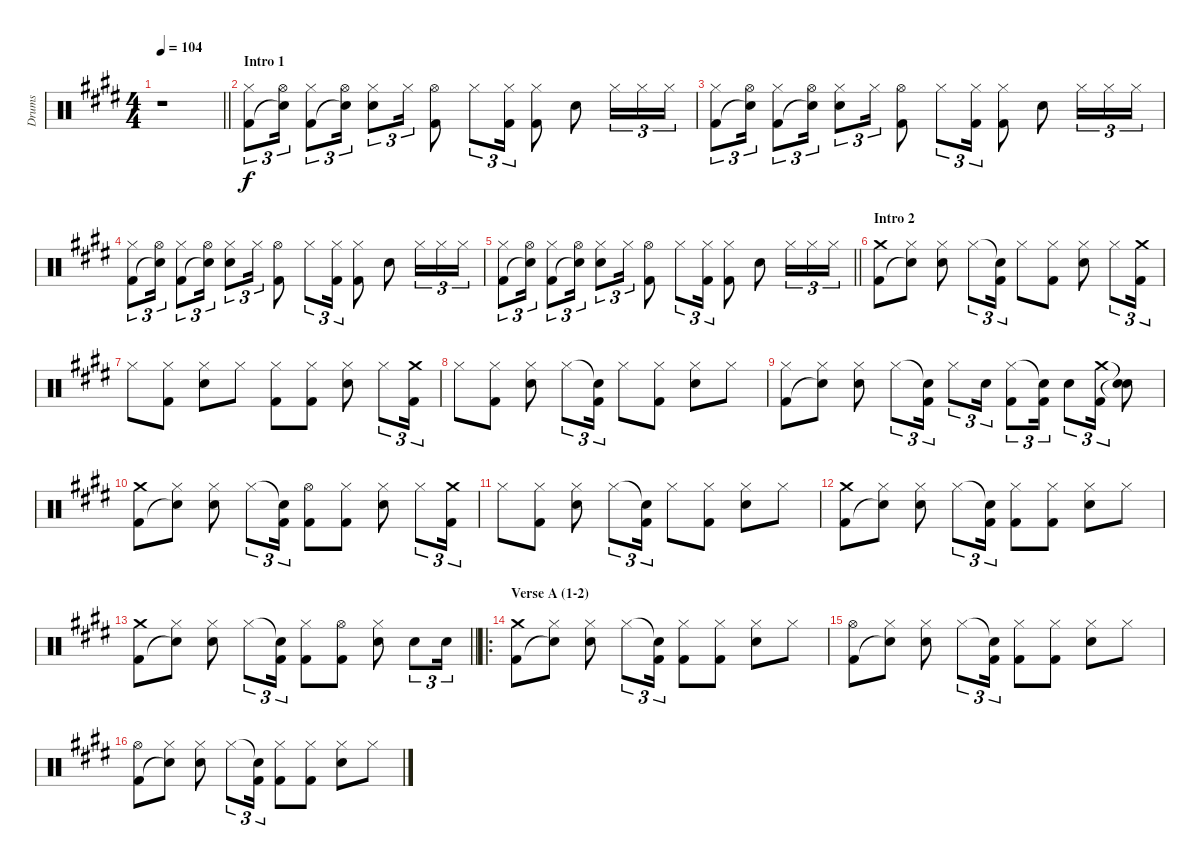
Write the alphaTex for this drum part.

\track ("Drums" "Drums") {instrument percussion}
\staff {score}
\articulation defaults
\ts (4 4)
\tempo 104
\clef neutral
\barLineRight lightlight
\ks c#minor
r.1{dy f} |
\section ("" "Intro 1")
("Hi-Hat (closed)" "Kick (hit) 2").8{tu (3 2)} ("Hi-Hat (open)" "Snare (hit)"{t}).16{tu (3 2)} ("Hi-Hat (closed)" "Kick (hit) 2").8{tu (3 2)} ("Hi-Hat (open)" "Snare (hit)"{t}).16{tu (3 2)} ("Hi-Hat (closed)" "Electric Snare (hit)").8{tu (3 2)} "Hi-Hat (closed)".16{tu (3 2)} ("Hi-Hat (open)" "Kick (hit) 2").8 "Hi-Hat (closed)".8{tu (3 2)} ("Hi-Hat (closed)" "Kick (hit) 2").16{tu (3 2)} ("Hi-Hat (closed)" "Kick (hit) 2").8 "Electric Snare (hit)".8 "Hi-Hat (closed)".16{tu (3 2)} "Hi-Hat (closed)".16{tu (3 2)} "Hi-Hat (closed)".16{tu (3 2)} |
("Hi-Hat (closed)" "Kick (hit) 2").8{tu (3 2)} ("Hi-Hat (open)" "Snare (hit)"{t}).16{tu (3 2)} ("Hi-Hat (closed)" "Kick (hit) 2").8{tu (3 2)} ("Hi-Hat (open)" "Snare (hit)"{t}).16{tu (3 2)} ("Hi-Hat (closed)" "Electric Snare (hit)").8{tu (3 2)} "Hi-Hat (closed)".16{tu (3 2)} ("Hi-Hat (open)" "Kick (hit) 2").8 "Hi-Hat (closed)".8{tu (3 2)} ("Hi-Hat (closed)" "Kick (hit) 2").16{tu (3 2)} ("Hi-Hat (closed)" "Kick (hit) 2").8 "Electric Snare (hit)".8 "Hi-Hat (closed)".16{tu (3 2)} "Hi-Hat (closed)".16{tu (3 2)} "Hi-Hat (closed)".16{tu (3 2)} |
("Hi-Hat (closed)" "Kick (hit) 2").8{tu (3 2)} ("Hi-Hat (open)" "Snare (hit)"{t}).16{tu (3 2)} ("Hi-Hat (closed)" "Kick (hit) 2").8{tu (3 2)} ("Hi-Hat (open)" "Snare (hit)"{t}).16{tu (3 2)} ("Hi-Hat (closed)" "Electric Snare (hit)").8{tu (3 2)} "Hi-Hat (closed)".16{tu (3 2)} ("Hi-Hat (open)" "Kick (hit) 2").8 "Hi-Hat (closed)".8{tu (3 2)} ("Hi-Hat (closed)" "Kick (hit) 2").16{tu (3 2)} ("Hi-Hat (closed)" "Kick (hit) 2").8 "Electric Snare (hit)".8 "Hi-Hat (closed)".16{tu (3 2)} "Hi-Hat (closed)".16{tu (3 2)} "Hi-Hat (closed)".16{tu (3 2)} |
\barLineRight lightlight
("Hi-Hat (closed)" "Kick (hit) 2").8{tu (3 2)} ("Hi-Hat (open)" "Snare (hit)"{t}).16{tu (3 2)} ("Hi-Hat (closed)" "Kick (hit) 2").8{tu (3 2)} ("Hi-Hat (open)" "Snare (hit)"{t}).16{tu (3 2)} ("Hi-Hat (closed)" "Electric Snare (hit)").8{tu (3 2)} "Hi-Hat (closed)".16{tu (3 2)} ("Hi-Hat (open)" "Kick (hit) 2").8 "Hi-Hat (closed)".8{tu (3 2)} ("Hi-Hat (closed)" "Kick (hit) 2").16{tu (3 2)} ("Hi-Hat (closed)" "Kick (hit) 2").8 "Electric Snare (hit)".8 "Hi-Hat (closed)".16{tu (3 2)} "Hi-Hat (closed)".16{tu (3 2)} "Hi-Hat (closed)".16{tu (3 2)} |
\section ("" "Intro 2")
("Crash medium (hit)" "Kick (hit) 2").8 ("Hi-Hat (closed)" "Snare (hit)"{t}).8 ("Hi-Hat (closed)" "Electric Snare (hit)").8 "Hi-Hat (closed)".8{tu (3 2)} ("Snare (hit)"{t} "Kick (hit) 2").16{tu (3 2)} "Hi-Hat (closed)".8 ("Hi-Hat (closed)" "Kick (hit) 2").8 ("Hi-Hat (closed)" "Electric Snare (hit)").8 "Hi-Hat (closed)".8{tu (3 2)} ("Crash medium (hit)" "Kick (hit) 2").16{tu (3 2)} |
"Hi-Hat (closed)".8 ("Hi-Hat (closed)" "Kick (hit) 2").8 ("Hi-Hat (closed)" "Electric Snare (hit)").8 "Hi-Hat (closed)".8 ("Hi-Hat (closed)" "Kick (hit) 2").8 ("Hi-Hat (closed)" "Kick (hit) 2").8 ("Hi-Hat (closed)" "Electric Snare (hit)").8 "Hi-Hat (closed)".8{tu (3 2)} ("Crash medium (hit)" "Kick (hit) 2").16{tu (3 2)} |
"Hi-Hat (closed)".8 ("Hi-Hat (closed)" "Kick (hit) 2").8 ("Hi-Hat (closed)" "Electric Snare (hit)").8 "Hi-Hat (closed)".8{tu (3 2)} ("Snare (hit)"{t} "Kick (hit) 2").16{tu (3 2)} "Hi-Hat (closed)".8 ("Hi-Hat (closed)" "Kick (hit) 2").8 ("Hi-Hat (closed)" "Electric Snare (hit)").8 "Hi-Hat (closed)".8 |
("Hi-Hat (closed)" "Kick (hit) 2").8 ("Hi-Hat (closed)" "Snare (hit)"{t}).8 ("Hi-Hat (closed)" "Electric Snare (hit)").8 "Hi-Hat (closed)".8{tu (3 2)} ("Snare (hit)"{t} "Kick (hit) 2").16{tu (3 2)} "Hi-Hat (closed)".8{tu (3 2)} "Electric Snare (hit)".16{tu (3 2)} ("Hi-Hat (closed)" "Kick (hit) 2").8{tu (3 2)} ("Snare (hit)"{t} "Kick (hit) 2").16{tu (3 2)} "Electric Snare (hit)".8{tu (3 2)} ("Crash medium (hit)" "Kick (hit) 2").16{tu (3 2)} ("Snare (hit)"{t} "Snare (hit)"{t}).8 |
("Crash medium (hit)" "Kick (hit) 2").8 ("Hi-Hat (closed)" "Snare (hit)"{t}).8 ("Hi-Hat (closed)" "Electric Snare (hit)").8 "Hi-Hat (closed)".8{tu (3 2)} ("Snare (hit)"{t} "Kick (hit) 2").16{tu (3 2)} ("Hi-Hat (open)" "Kick (hit) 2").8 ("Hi-Hat (closed)" "Kick (hit) 2").8 ("Hi-Hat (closed)" "Electric Snare (hit)").8 "Hi-Hat (closed)".8{tu (3 2)} ("Crash medium (hit)" "Kick (hit) 2").16{tu (3 2)} |
"Hi-Hat (closed)".8 ("Hi-Hat (closed)" "Kick (hit) 2").8 ("Hi-Hat (closed)" "Electric Snare (hit)").8 "Hi-Hat (closed)".8{tu (3 2)} ("Snare (hit)"{t} "Kick (hit) 2").16{tu (3 2)} "Hi-Hat (closed)".8 ("Hi-Hat (closed)" "Kick (hit) 2").8 ("Hi-Hat (closed)" "Electric Snare (hit)").8 "Hi-Hat (closed)".8 |
("Crash medium (hit)" "Kick (hit) 2").8 ("Hi-Hat (closed)" "Snare (hit)"{t}).8 ("Hi-Hat (closed)" "Electric Snare (hit)").8 "Hi-Hat (closed)".8{tu (3 2)} ("Snare (hit)"{t} "Kick (hit) 2").16{tu (3 2)} ("Hi-Hat (closed)" "Kick (hit) 2").8 ("Hi-Hat (closed)" "Kick (hit) 2").8 ("Hi-Hat (closed)" "Electric Snare (hit)").8 "Hi-Hat (closed)".8 |
\barLineRight lightlight
("Crash medium (hit)" "Kick (hit) 2").8 ("Hi-Hat (closed)" "Snare (hit)"{t}).8 ("Hi-Hat (closed)" "Electric Snare (hit)").8 "Hi-Hat (closed)".8{tu (3 2)} ("Snare (hit)"{t} "Kick (hit) 2").16{tu (3 2)} ("Hi-Hat (closed)" "Kick (hit) 2").8 ("Hi-Hat (open)" "Kick (hit) 2").8 ("Hi-Hat (closed)" "Electric Snare (hit)").8 "Electric Snare (hit)".8{tu (3 2)} "Electric Snare (hit)".16{tu (3 2)} |
\ro
\section ("" "Verse A (1-2)")
("Crash medium (hit)" "Kick (hit) 2").8 ("Hi-Hat (closed)" "Snare (hit)"{t}).8 ("Hi-Hat (closed)" "Electric Snare (hit)").8 "Hi-Hat (closed)".8{tu (3 2)} ("Snare (hit)"{t} "Kick (hit) 2").16{tu (3 2)} ("Hi-Hat (closed)" "Kick (hit) 2").8 ("Hi-Hat (closed)" "Kick (hit) 2").8 ("Hi-Hat (closed)" "Electric Snare (hit)").8 "Hi-Hat (closed)".8 |
("Hi-Hat (open)" "Kick (hit) 2").8 ("Hi-Hat (closed)" "Snare (hit)"{t}).8 ("Hi-Hat (closed)" "Electric Snare (hit)").8 "Hi-Hat (closed)".8{tu (3 2)} ("Snare (hit)"{t} "Kick (hit) 2").16{tu (3 2)} ("Hi-Hat (closed)" "Kick (hit) 2").8 ("Hi-Hat (closed)" "Kick (hit) 2").8 ("Hi-Hat (closed)" "Electric Snare (hit)").8 "Hi-Hat (closed)".8 |
("Hi-Hat (open)" "Kick (hit) 2").8 ("Hi-Hat (closed)" "Snare (hit)"{t}).8 ("Hi-Hat (closed)" "Electric Snare (hit)").8 "Hi-Hat (closed)".8{tu (3 2)} ("Snare (hit)"{t} "Kick (hit) 2").16{tu (3 2)} ("Hi-Hat (closed)" "Kick (hit) 2").8 ("Hi-Hat (closed)" "Kick (hit) 2").8 ("Hi-Hat (closed)" "Electric Snare (hit)").8 "Hi-Hat (closed)".8
